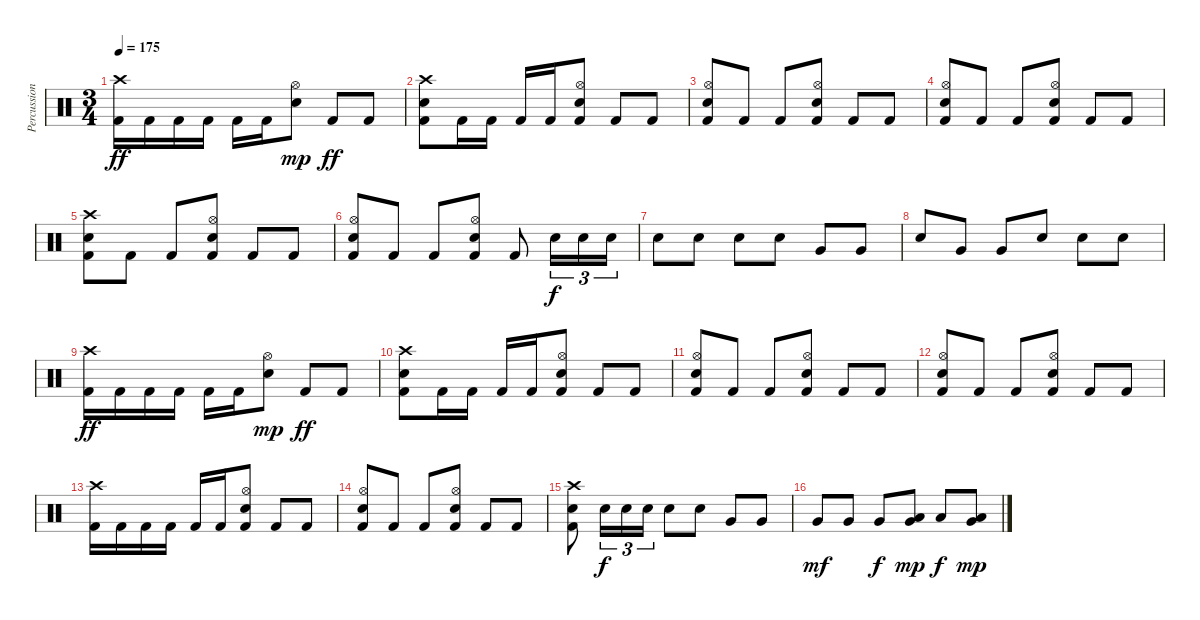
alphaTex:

\track ("Percussion" "Percussion") {instrument percussion}
\staff {score}
\articulation defaults
\ts (3 4)
\tempo 175
\clef neutral
\ks c
("Crash high (hit)" "Kick (hit) 2").16{dy ff volume 12} "Kick (hit) 2".16 "Kick (hit) 2".16 "Kick (hit) 2".16 "Kick (hit) 2".16 "Kick (hit) 2".16 ("Hi-Hat (open)" "Snare (hit) 2").8{dy mp} "Kick (hit) 2".8{dy ff} "Kick (hit) 2".8 |
("Crash high (hit)" "Snare (hit) 2" "Kick (hit) 2").8 "Kick (hit) 2".16 "Kick (hit) 2".16 "Kick (hit) 2".16 "Kick (hit) 2".16 ("Hi-Hat (open)" "Snare (hit) 2" "Kick (hit) 2").8 "Kick (hit) 2".8 "Kick (hit) 2".8 |
("Hi-Hat (open)" "Snare (hit) 2" "Kick (hit) 2").8 "Kick (hit) 2".8 "Kick (hit) 2".8 ("Hi-Hat (open)" "Snare (hit) 2" "Kick (hit) 2").8 "Kick (hit) 2".8 "Kick (hit) 2".8 |
("Hi-Hat (open)" "Snare (hit) 2" "Kick (hit) 2").8 "Kick (hit) 2".8 "Kick (hit) 2".8 ("Hi-Hat (open)" "Snare (hit) 2" "Kick (hit) 2").8 "Kick (hit) 2".8 "Kick (hit) 2".8 |
("Crash high (hit)" "Snare (hit) 2" "Kick (hit) 2").8 "Kick (hit) 2".8 "Kick (hit) 2".8 ("Hi-Hat (open)" "Snare (hit) 2" "Kick (hit) 2").8 "Kick (hit) 2".8 "Kick (hit) 2".8 |
("Hi-Hat (open)" "Snare (hit) 2" "Kick (hit) 2").8 "Kick (hit) 2".8 "Kick (hit) 2".8 ("Hi-Hat (open)" "Snare (hit) 2" "Kick (hit) 2").8 "Kick (hit) 2".8 "Snare (hit) 2".16{tu (3 2) dy f} "Snare (hit) 2".16{tu (3 2)} "Snare (hit) 2".16{tu (3 2)} |
"Snare (hit) 2".8 "Snare (hit) 2".8 "Snare (hit) 2".8 "Snare (hit) 2".8 "Very Low Tom (hit)".8 "Very Low Tom (hit)".8 |
"Snare (hit) 2".8 "Very Low Tom (hit)".8 "Very Low Tom (hit)".8 "Snare (hit) 2".8 "Snare (hit) 2".8 "Snare (hit) 2".8 |
("Crash high (hit)" "Kick (hit) 2").16{dy ff} "Kick (hit) 2".16 "Kick (hit) 2".16 "Kick (hit) 2".16 "Kick (hit) 2".16 "Kick (hit) 2".16 ("Hi-Hat (open)" "Snare (hit) 2").8{dy mp} "Kick (hit) 2".8{dy ff} "Kick (hit) 2".8 |
("Crash high (hit)" "Snare (hit) 2" "Kick (hit) 2").8 "Kick (hit) 2".16 "Kick (hit) 2".16 "Kick (hit) 2".16 "Kick (hit) 2".16 ("Hi-Hat (open)" "Snare (hit) 2" "Kick (hit) 2").8 "Kick (hit) 2".8 "Kick (hit) 2".8 |
("Hi-Hat (open)" "Snare (hit) 2" "Kick (hit) 2").8 "Kick (hit) 2".8 "Kick (hit) 2".8 ("Hi-Hat (open)" "Snare (hit) 2" "Kick (hit) 2").8 "Kick (hit) 2".8 "Kick (hit) 2".8 |
("Hi-Hat (open)" "Snare (hit) 2" "Kick (hit) 2").8 "Kick (hit) 2".8 "Kick (hit) 2".8 ("Hi-Hat (open)" "Snare (hit) 2" "Kick (hit) 2").8 "Kick (hit) 2".8 "Kick (hit) 2".8 |
("Crash high (hit)" "Kick (hit) 2").16 "Kick (hit) 2".16 "Kick (hit) 2".16 "Kick (hit) 2".16 "Kick (hit) 2".16 "Kick (hit) 2".16 ("Hi-Hat (open)" "Snare (hit) 2" "Kick (hit) 2").8 "Kick (hit) 2".8 "Kick (hit) 2".8 |
("Hi-Hat (open)" "Snare (hit) 2" "Kick (hit) 2").8 "Kick (hit) 2".8 "Kick (hit) 2".8 ("Hi-Hat (open)" "Snare (hit) 2" "Kick (hit) 2").8 "Kick (hit) 2".8 "Kick (hit) 2".8 |
("Crash high (hit)" "Snare (hit) 2" "Kick (hit) 2").8 "Snare (hit) 2".16{tu (3 2) dy f} "Snare (hit) 2".16{tu (3 2)} "Snare (hit) 2".16{tu (3 2)} "Snare (hit) 2".8 "Snare (hit) 2".8 "Very Low Tom (hit)".8 "Very Low Tom (hit)".8 |
"Very Low Tom (hit)".8{dy mf} "Very Low Tom (hit)".8 "Very Low Tom (hit)".8{dy f} ("Low Tom (hit)" "Very Low Tom (hit)").8{dy mp} "Low Floor Tom (hit)".8{dy f} ("Low Tom (hit)" "Very Low Tom (hit)").8{dy mp}
